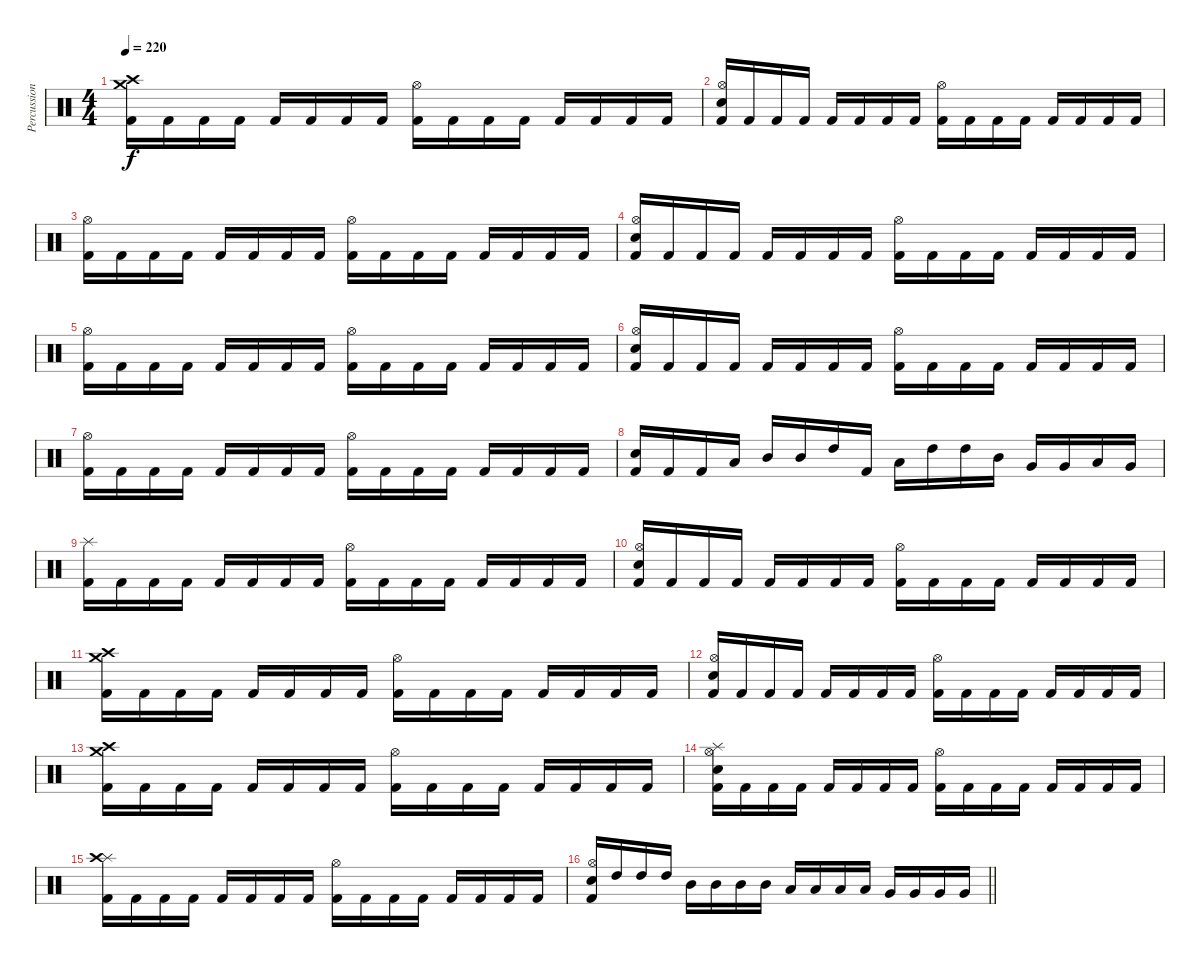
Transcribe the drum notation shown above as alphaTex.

\track ("Percussion" "Percussion") {instrument percussion}
\staff {score}
\articulation defaults
\ts (4 4)
\tempo 220
\clef neutral
\ks c
("Crash medium (hit)" "Crash high (hit)" "Kick (hit) 2").16{dy f} "Kick (hit) 2".16 "Kick (hit) 2".16 "Kick (hit) 2".16 "Kick (hit) 2".16 "Kick (hit) 2".16 "Kick (hit) 2".16 "Kick (hit) 2".16 ("Hi-Hat (open)" "Kick (hit) 2").16 "Kick (hit) 2".16 "Kick (hit) 2".16 "Kick (hit) 2".16 "Kick (hit) 2".16 "Kick (hit) 2".16 "Kick (hit) 2".16 "Kick (hit) 2".16 |
("Hi-Hat (open)" "Electric Snare (hit)" "Kick (hit) 2").16 "Kick (hit) 2".16 "Kick (hit) 2".16 "Kick (hit) 2".16 "Kick (hit) 2".16 "Kick (hit) 2".16 "Kick (hit) 2".16 "Kick (hit) 2".16 ("Hi-Hat (open)" "Kick (hit) 2").16 "Kick (hit) 2".16 "Kick (hit) 2".16 "Kick (hit) 2".16 "Kick (hit) 2".16 "Kick (hit) 2".16 "Kick (hit) 2".16 "Kick (hit) 2".16 |
("Hi-Hat (open)" "Kick (hit) 2").16 "Kick (hit) 2".16 "Kick (hit) 2".16 "Kick (hit) 2".16 "Kick (hit) 2".16 "Kick (hit) 2".16 "Kick (hit) 2".16 "Kick (hit) 2".16 ("Hi-Hat (open)" "Kick (hit) 2").16 "Kick (hit) 2".16 "Kick (hit) 2".16 "Kick (hit) 2".16 "Kick (hit) 2".16 "Kick (hit) 2".16 "Kick (hit) 2".16 "Kick (hit) 2".16 |
("Hi-Hat (open)" "Electric Snare (hit)" "Kick (hit) 2").16 "Kick (hit) 2".16 "Kick (hit) 2".16 "Kick (hit) 2".16 "Kick (hit) 2".16 "Kick (hit) 2".16 "Kick (hit) 2".16 "Kick (hit) 2".16 ("Hi-Hat (open)" "Kick (hit) 2").16 "Kick (hit) 2".16 "Kick (hit) 2".16 "Kick (hit) 2".16 "Kick (hit) 2".16 "Kick (hit) 2".16 "Kick (hit) 2".16 "Kick (hit) 2".16 |
("Hi-Hat (open)" "Kick (hit) 2").16 "Kick (hit) 2".16 "Kick (hit) 2".16 "Kick (hit) 2".16 "Kick (hit) 2".16 "Kick (hit) 2".16 "Kick (hit) 2".16 "Kick (hit) 2".16 ("Hi-Hat (open)" "Kick (hit) 2").16 "Kick (hit) 2".16 "Kick (hit) 2".16 "Kick (hit) 2".16 "Kick (hit) 2".16 "Kick (hit) 2".16 "Kick (hit) 2".16 "Kick (hit) 2".16 |
("Hi-Hat (open)" "Electric Snare (hit)" "Kick (hit) 2").16 "Kick (hit) 2".16 "Kick (hit) 2".16 "Kick (hit) 2".16 "Kick (hit) 2".16 "Kick (hit) 2".16 "Kick (hit) 2".16 "Kick (hit) 2".16 ("Hi-Hat (open)" "Kick (hit) 2").16 "Kick (hit) 2".16 "Kick (hit) 2".16 "Kick (hit) 2".16 "Kick (hit) 2".16 "Kick (hit) 2".16 "Kick (hit) 2".16 "Kick (hit) 2".16 |
("Hi-Hat (open)" "Kick (hit) 2").16 "Kick (hit) 2".16 "Kick (hit) 2".16 "Kick (hit) 2".16 "Kick (hit) 2".16 "Kick (hit) 2".16 "Kick (hit) 2".16 "Kick (hit) 2".16 ("Hi-Hat (open)" "Kick (hit) 2").16 "Kick (hit) 2".16 "Kick (hit) 2".16 "Kick (hit) 2".16 "Kick (hit) 2".16 "Kick (hit) 2".16 "Kick (hit) 2".16 "Kick (hit) 2".16 |
("Electric Snare (hit)" "Kick (hit) 2").16 "Kick (hit) 2".16 "Kick (hit) 2".16 "Low Tom (hit)".16 "Mid Tom (hit)".16 "Mid Tom (hit)".16 "High Tom (hit)".16 "Kick (hit) 2".16 "Low Tom (hit)".16 "High Tom (hit)".16 "High Tom (hit)".16 "Mid Tom (hit)".16 "Very Low Tom (hit)".16 "Very Low Tom (hit)".16 "Low Tom (hit)".16 "Very Low Tom (hit)".16 |
("Splash (hit)" "Kick (hit) 2").16 "Kick (hit) 2".16 "Kick (hit) 2".16 "Kick (hit) 2".16 "Kick (hit) 2".16 "Kick (hit) 2".16 "Kick (hit) 2".16 "Kick (hit) 2".16 ("Hi-Hat (open)" "Kick (hit) 2").16 "Kick (hit) 2".16 "Kick (hit) 2".16 "Kick (hit) 2".16 "Kick (hit) 2".16 "Kick (hit) 2".16 "Kick (hit) 2".16 "Kick (hit) 2".16 |
("Hi-Hat (open)" "Electric Snare (hit)" "Kick (hit) 2").16 "Kick (hit) 2".16 "Kick (hit) 2".16 "Kick (hit) 2".16 "Kick (hit) 2".16 "Kick (hit) 2".16 "Kick (hit) 2".16 "Kick (hit) 2".16 ("Hi-Hat (open)" "Kick (hit) 2").16 "Kick (hit) 2".16 "Kick (hit) 2".16 "Kick (hit) 2".16 "Kick (hit) 2".16 "Kick (hit) 2".16 "Kick (hit) 2".16 "Kick (hit) 2".16 |
("Crash medium (hit)" "Crash high (hit)" "Kick (hit) 2").16 "Kick (hit) 2".16 "Kick (hit) 2".16 "Kick (hit) 2".16 "Kick (hit) 2".16 "Kick (hit) 2".16 "Kick (hit) 2".16 "Kick (hit) 2".16 ("Hi-Hat (open)" "Kick (hit) 2").16 "Kick (hit) 2".16 "Kick (hit) 2".16 "Kick (hit) 2".16 "Kick (hit) 2".16 "Kick (hit) 2".16 "Kick (hit) 2".16 "Kick (hit) 2".16 |
("Hi-Hat (open)" "Electric Snare (hit)" "Kick (hit) 2").16 "Kick (hit) 2".16 "Kick (hit) 2".16 "Kick (hit) 2".16 "Kick (hit) 2".16 "Kick (hit) 2".16 "Kick (hit) 2".16 "Kick (hit) 2".16 ("Hi-Hat (open)" "Kick (hit) 2").16 "Kick (hit) 2".16 "Kick (hit) 2".16 "Kick (hit) 2".16 "Kick (hit) 2".16 "Kick (hit) 2".16 "Kick (hit) 2".16 "Kick (hit) 2".16 |
("Crash medium (hit)" "Crash high (hit)" "Kick (hit) 2").16 "Kick (hit) 2".16 "Kick (hit) 2".16 "Kick (hit) 2".16 "Kick (hit) 2".16 "Kick (hit) 2".16 "Kick (hit) 2".16 "Kick (hit) 2".16 ("Hi-Hat (open)" "Kick (hit) 2").16 "Kick (hit) 2".16 "Kick (hit) 2".16 "Kick (hit) 2".16 "Kick (hit) 2".16 "Kick (hit) 2".16 "Kick (hit) 2".16 "Kick (hit) 2".16 |
("Splash (hit)" "Hi-Hat (open)" "Electric Snare (hit)" "Kick (hit) 2").16 "Kick (hit) 2".16 "Kick (hit) 2".16 "Kick (hit) 2".16 "Kick (hit) 2".16 "Kick (hit) 2".16 "Kick (hit) 2".16 "Kick (hit) 2".16 ("Hi-Hat (open)" "Kick (hit) 2").16 "Kick (hit) 2".16 "Kick (hit) 2".16 "Kick (hit) 2".16 "Kick (hit) 2".16 "Kick (hit) 2".16 "Kick (hit) 2".16 "Kick (hit) 2".16 |
("Splash (hit)" "Crash high (hit)" "Kick (hit) 2").16 "Kick (hit) 2".16 "Kick (hit) 2".16 "Kick (hit) 2".16 "Kick (hit) 2".16 "Kick (hit) 2".16 "Kick (hit) 2".16 "Kick (hit) 2".16 ("Hi-Hat (open)" "Kick (hit) 2").16 "Kick (hit) 2".16 "Kick (hit) 2".16 "Kick (hit) 2".16 "Kick (hit) 2".16 "Kick (hit) 2".16 "Kick (hit) 2".16 "Kick (hit) 2".16 |
\barLineRight lightlight
("Hi-Hat (open)" "Electric Snare (hit)" "Kick (hit) 2").16 "High Tom (hit)".16 "High Tom (hit)".16 "High Tom (hit)".16 "Mid Tom (hit)".16 "Mid Tom (hit)".16 "Mid Tom (hit)".16 "Mid Tom (hit)".16 "Low Tom (hit)".16 "Low Tom (hit)".16 "Low Tom (hit)".16 "Low Tom (hit)".16 "Very Low Tom (hit)".16 "Very Low Tom (hit)".16 "Very Low Tom (hit)".16 "Very Low Tom (hit)".16
